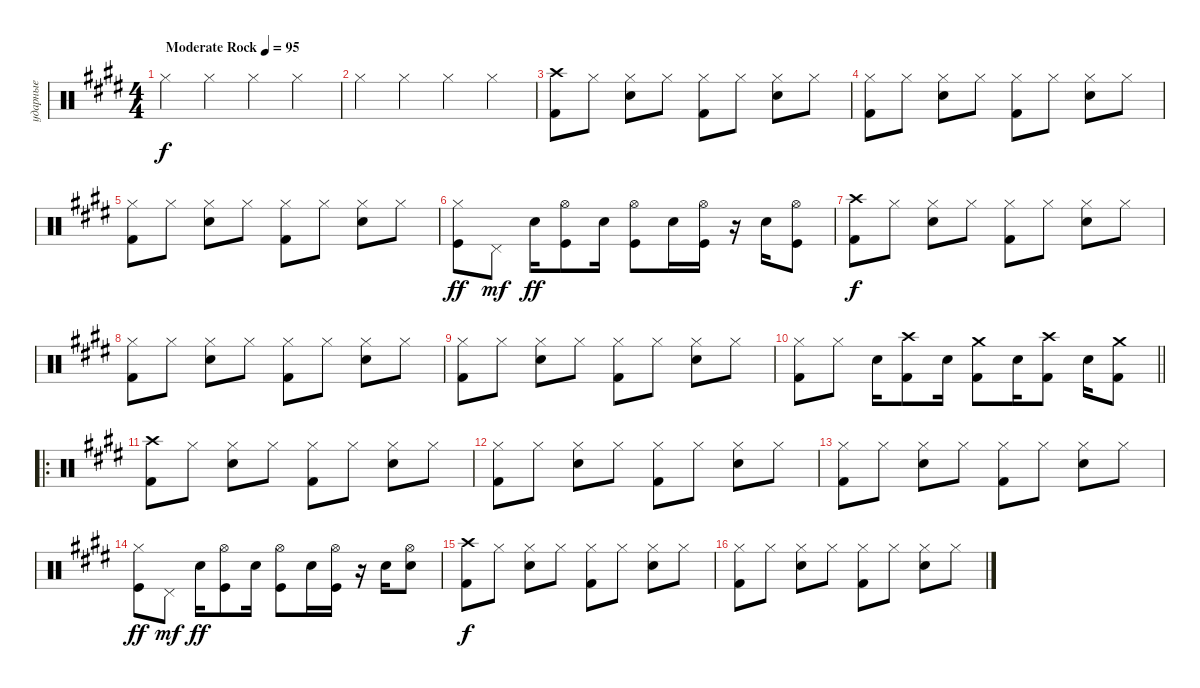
\track ("ударные" "ударные") {instrument percussion}
\staff {score}
\articulation defaults
\ts (4 4)
\section ("" "")
\tempo (95 "Moderate Rock")
\clef neutral
\ks e "Hi-Hat (closed)".4{dy f} "Hi-Hat (closed)".4 "Hi-Hat (closed)".4 "Hi-Hat (closed)".4
|
"Hi-Hat (closed)".4 "Hi-Hat (closed)".4 "Hi-Hat (closed)".4 "Hi-Hat (closed)".4 |
("Crash high (hit)" "Kick (hit) 2").8 "Hi-Hat (closed)".8 ("Hi-Hat (closed)" "Snare (hit) 2").8 "Hi-Hat (closed)".8 ("Hi-Hat (closed)" "Kick (hit) 2").8 "Hi-Hat (closed)".8 ("Hi-Hat (closed)" "Snare (hit) 2").8 "Hi-Hat (closed)".8 |
("Hi-Hat (closed)" "Kick (hit) 2").8 "Hi-Hat (closed)".8 ("Hi-Hat (closed)" "Snare (hit) 2").8 "Hi-Hat (closed)".8 ("Hi-Hat (closed)" "Kick (hit) 2").8 "Hi-Hat (closed)".8 ("Hi-Hat (closed)" "Snare (hit) 2").8 "Hi-Hat (closed)".8 |
("Hi-Hat (closed)" "Kick (hit) 2").8 "Hi-Hat (closed)".8 ("Hi-Hat (closed)" "Snare (hit) 2").8 "Hi-Hat (closed)".8 ("Hi-Hat (closed)" "Kick (hit) 2").8 "Hi-Hat (closed)".8 ("Hi-Hat (closed)" "Snare (hit) 2").8 "Hi-Hat (closed)".8 |
("Hi-Hat (closed)" "Kick (hit)").8{dy ff} "Pedal Hi-Hat (hit)".8{dy mf} "Snare (hit) 2".16{dy ff} ("Hi-Hat (open)" "Kick (hit)").8 "Snare (hit) 2".16 ("Hi-Hat (open)" "Kick (hit)").8 "Snare (hit) 2".16 ("Hi-Hat (open)" "Kick (hit)").16 r.16 "Snare (hit) 2".16 ("Hi-Hat (open)" "Kick (hit)").8 |
("Crash high (hit)" "Kick (hit) 2").8{dy f} "Hi-Hat (closed)".8 ("Hi-Hat (closed)" "Snare (hit) 2").8 "Hi-Hat (closed)".8 ("Hi-Hat (closed)" "Kick (hit) 2").8 "Hi-Hat (closed)".8 ("Hi-Hat (closed)" "Snare (hit) 2").8 "Hi-Hat (closed)".8 |
("Hi-Hat (closed)" "Kick (hit) 2").8 "Hi-Hat (closed)".8 ("Hi-Hat (closed)" "Snare (hit) 2").8 "Hi-Hat (closed)".8 ("Hi-Hat (closed)" "Kick (hit) 2").8 "Hi-Hat (closed)".8 ("Hi-Hat (closed)" "Snare (hit) 2").8 "Hi-Hat (closed)".8 |
("Hi-Hat (closed)" "Kick (hit) 2").8 "Hi-Hat (closed)".8 ("Hi-Hat (closed)" "Snare (hit) 2").8 "Hi-Hat (closed)".8 ("Hi-Hat (closed)" "Kick (hit) 2").8 "Hi-Hat (closed)".8 ("Hi-Hat (closed)" "Snare (hit) 2").8 "Hi-Hat (closed)".8 |
\barLineRight lightlight
("Hi-Hat (closed)" "Kick (hit) 2").8 "Hi-Hat (closed)".8 "Snare (hit) 2".16 ("Crash high (hit)" "Kick (hit) 2").8 "Snare (hit) 2".16 ("Crash medium (hit)" "Kick (hit) 2").8 "Snare (hit) 2".16 ("Crash high (hit)" "Kick (hit) 2").8 "Snare (hit) 2".16 ("Crash medium (hit)" "Kick (hit) 2").8 |
\ro
\section ("" "")
("Crash high (hit)" "Kick (hit) 2").8 "Hi-Hat (closed)".8 ("Hi-Hat (closed)" "Snare (hit) 2").8 "Hi-Hat (closed)".8 ("Hi-Hat (closed)" "Kick (hit) 2").8 "Hi-Hat (closed)".8 ("Hi-Hat (closed)" "Snare (hit) 2").8 "Hi-Hat (closed)".8 |
("Hi-Hat (closed)" "Kick (hit) 2").8 "Hi-Hat (closed)".8 ("Hi-Hat (closed)" "Snare (hit) 2").8 "Hi-Hat (closed)".8 ("Hi-Hat (closed)" "Kick (hit) 2").8 "Hi-Hat (closed)".8 ("Hi-Hat (closed)" "Snare (hit) 2").8 "Hi-Hat (closed)".8 |
("Hi-Hat (closed)" "Kick (hit) 2").8 "Hi-Hat (closed)".8 ("Hi-Hat (closed)" "Snare (hit) 2").8 "Hi-Hat (closed)".8 ("Hi-Hat (closed)" "Kick (hit) 2").8 "Hi-Hat (closed)".8 ("Hi-Hat (closed)" "Snare (hit) 2").8 "Hi-Hat (closed)".8 |
("Hi-Hat (closed)" "Kick (hit)").8{dy ff} "Pedal Hi-Hat (hit)".8{dy mf} "Snare (hit) 2".16{dy ff} ("Hi-Hat (open)" "Kick (hit)").8 "Snare (hit) 2".16 ("Hi-Hat (open)" "Kick (hit)").8 "Snare (hit) 2".16 ("Hi-Hat (open)" "Kick (hit)").16 r.16 "Snare (hit) 2".16 ("Snare (hit) 2" "Hi-Hat (open)").8 |
("Crash high (hit)" "Kick (hit) 2").8{dy f} "Hi-Hat (closed)".8 ("Hi-Hat (closed)" "Snare (hit) 2").8 "Hi-Hat (closed)".8 ("Hi-Hat (closed)" "Kick (hit) 2").8 "Hi-Hat (closed)".8 ("Hi-Hat (closed)" "Snare (hit) 2").8 "Hi-Hat (closed)".8 |
("Hi-Hat (closed)" "Kick (hit) 2").8 "Hi-Hat (closed)".8 ("Hi-Hat (closed)" "Snare (hit) 2").8 "Hi-Hat (closed)".8 ("Hi-Hat (closed)" "Kick (hit) 2").8 "Hi-Hat (closed)".8 ("Hi-Hat (closed)" "Snare (hit) 2").8 "Hi-Hat (closed)".8
